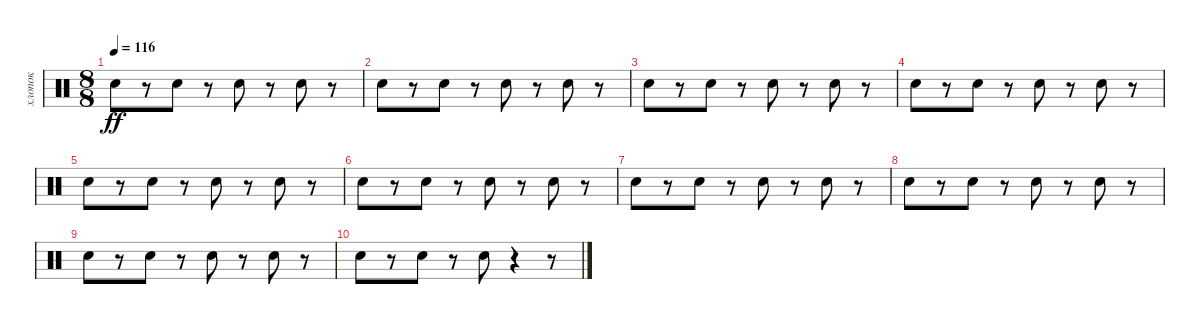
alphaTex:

\track ("хлопок" "хлопок") {instrument percussion}
\staff {score}
\articulation defaults
\ts (8 8)
\tempo 116
\clef neutral
\ks c "Hand Clap (hit)".8{dy ff}
r.8 "Hand Clap (hit)".8 r.8 "Hand Clap (hit)".8 r.8 "Hand Clap (hit)".8 r.8 |
"Hand Clap (hit)".8 r.8 "Hand Clap (hit)".8 r.8 "Hand Clap (hit)".8 r.8 "Hand Clap (hit)".8 r.8 |
"Hand Clap (hit)".8 r.8 "Hand Clap (hit)".8 r.8 "Hand Clap (hit)".8 r.8 "Hand Clap (hit)".8 r.8 |
"Hand Clap (hit)".8 r.8 "Hand Clap (hit)".8 r.8 "Hand Clap (hit)".8 r.8 "Hand Clap (hit)".8 r.8 |
"Hand Clap (hit)".8 r.8 "Hand Clap (hit)".8 r.8 "Hand Clap (hit)".8 r.8 "Hand Clap (hit)".8 r.8 |
"Hand Clap (hit)".8 r.8 "Hand Clap (hit)".8 r.8 "Hand Clap (hit)".8 r.8 "Hand Clap (hit)".8 r.8 |
"Hand Clap (hit)".8 r.8 "Hand Clap (hit)".8 r.8 "Hand Clap (hit)".8 r.8 "Hand Clap (hit)".8 r.8 |
"Hand Clap (hit)".8 r.8 "Hand Clap (hit)".8 r.8 "Hand Clap (hit)".8 r.8 "Hand Clap (hit)".8 r.8 |
"Hand Clap (hit)".8 r.8 "Hand Clap (hit)".8 r.8 "Hand Clap (hit)".8 r.8 "Hand Clap (hit)".8 r.8 |
"Hand Clap (hit)".8 r.8 "Hand Clap (hit)".8 r.8 "Hand Clap (hit)".8 r.4 r.8
